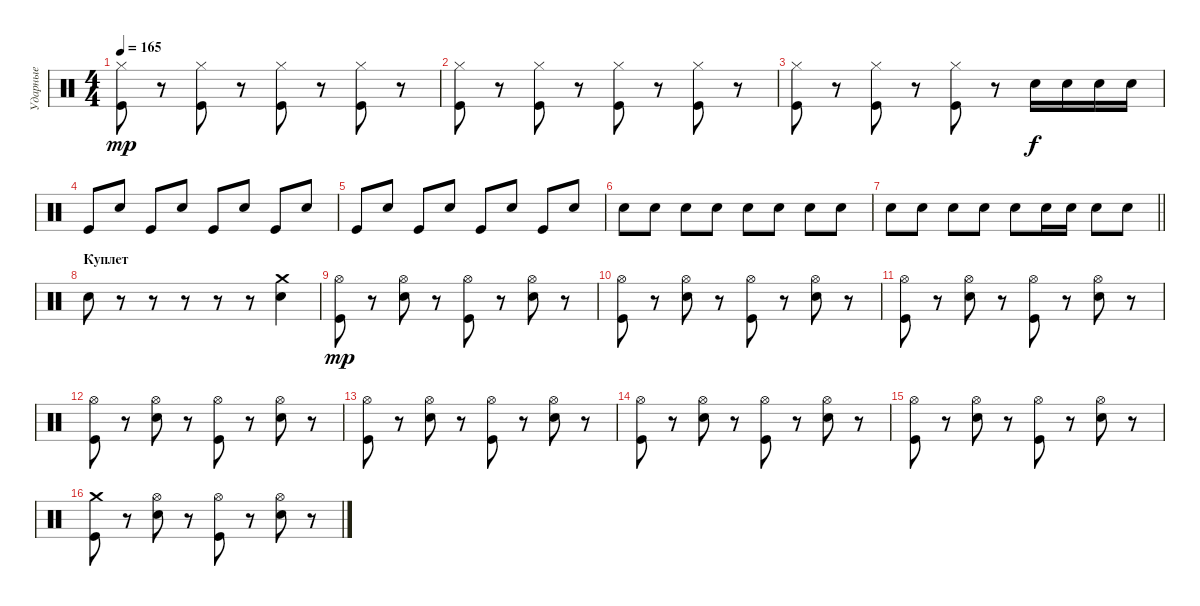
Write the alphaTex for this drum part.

\track ("Ударные" "Ударные") {instrument percussion}
\staff {score}
\articulation defaults
\ts (4 4)
\tempo 165
\clef neutral
\ks c
("Hi-Hat (closed)" "Kick (hit)").8{dy mp} r.8 ("Hi-Hat (closed)" "Kick (hit)").8 r.8 ("Hi-Hat (closed)" "Kick (hit)").8 r.8 ("Hi-Hat (closed)" "Kick (hit)").8 r.8 |
("Hi-Hat (closed)" "Kick (hit)").8 r.8 ("Hi-Hat (closed)" "Kick (hit)").8 r.8 ("Hi-Hat (closed)" "Kick (hit)").8 r.8 ("Hi-Hat (closed)" "Kick (hit)").8 r.8 |
("Hi-Hat (closed)" "Kick (hit)").8 r.8 ("Hi-Hat (closed)" "Kick (hit)").8 r.8 ("Hi-Hat (closed)" "Kick (hit)").8 r.8 "Electric Snare (hit)".16{dy f} "Electric Snare (hit)".16 "Electric Snare (hit)".16 "Electric Snare (hit)".16 |
"Kick (hit)".8 "Electric Snare (hit)".8 "Kick (hit)".8 "Electric Snare (hit)".8 "Kick (hit)".8 "Electric Snare (hit)".8 "Kick (hit)".8 "Electric Snare (hit)".8 |
"Kick (hit)".8 "Electric Snare (hit)".8 "Kick (hit)".8 "Electric Snare (hit)".8 "Kick (hit)".8 "Electric Snare (hit)".8 "Kick (hit)".8 "Electric Snare (hit)".8 |
"Electric Snare (hit)".8 "Electric Snare (hit)".8 "Electric Snare (hit)".8 "Electric Snare (hit)".8 "Electric Snare (hit)".8 "Electric Snare (hit)".8 "Electric Snare (hit)".8 "Electric Snare (hit)".8 |
\barLineRight lightlight "Electric Snare (hit)".8 "Electric Snare (hit)".8 "Electric Snare (hit)".8 "Electric Snare (hit)".8 "Electric Snare (hit)".8 "Electric Snare (hit)".16 "Electric Snare (hit)".16 "Electric Snare (hit)".8 "Electric Snare (hit)".8
|
\section ("" "Куплет")
"Electric Snare (hit)".8 r.8 r.8 r.8 r.8 r.8 ("Crash medium (hit)" "Electric Snare (hit)").4 |
("Hi-Hat (open)" "Kick (hit)").8{dy mp} r.8 ("Hi-Hat (open)" "Electric Snare (hit)").8 r.8 ("Hi-Hat (open)" "Kick (hit)").8 r.8 ("Hi-Hat (open)" "Electric Snare (hit)").8 r.8 |
("Hi-Hat (open)" "Kick (hit)").8 r.8 ("Hi-Hat (open)" "Electric Snare (hit)").8 r.8 ("Hi-Hat (open)" "Kick (hit)").8 r.8 ("Hi-Hat (open)" "Electric Snare (hit)").8 r.8 |
("Hi-Hat (open)" "Kick (hit)").8 r.8 ("Hi-Hat (open)" "Electric Snare (hit)").8 r.8 ("Hi-Hat (open)" "Kick (hit)").8 r.8 ("Hi-Hat (open)" "Electric Snare (hit)").8 r.8 |
("Hi-Hat (open)" "Kick (hit)").8 r.8 ("Hi-Hat (open)" "Electric Snare (hit)").8 r.8 ("Hi-Hat (open)" "Kick (hit)").8 r.8 ("Hi-Hat (open)" "Electric Snare (hit)").8 r.8 |
("Hi-Hat (open)" "Kick (hit)").8 r.8 ("Hi-Hat (open)" "Electric Snare (hit)").8 r.8 ("Hi-Hat (open)" "Kick (hit)").8 r.8 ("Hi-Hat (open)" "Electric Snare (hit)").8 r.8 |
("Hi-Hat (open)" "Kick (hit)").8 r.8 ("Hi-Hat (open)" "Electric Snare (hit)").8 r.8 ("Hi-Hat (open)" "Kick (hit)").8 r.8 ("Hi-Hat (open)" "Electric Snare (hit)").8 r.8 |
("Hi-Hat (open)" "Kick (hit)").8 r.8 ("Hi-Hat (open)" "Electric Snare (hit)").8 r.8 ("Hi-Hat (open)" "Kick (hit)").8 r.8 ("Hi-Hat (open)" "Electric Snare (hit)").8 r.8 |
("Crash medium (hit)" "Kick (hit)").8 r.8 ("Hi-Hat (open)" "Electric Snare (hit)").8 r.8 ("Hi-Hat (open)" "Kick (hit)").8 r.8 ("Hi-Hat (open)" "Electric Snare (hit)").8 r.8
